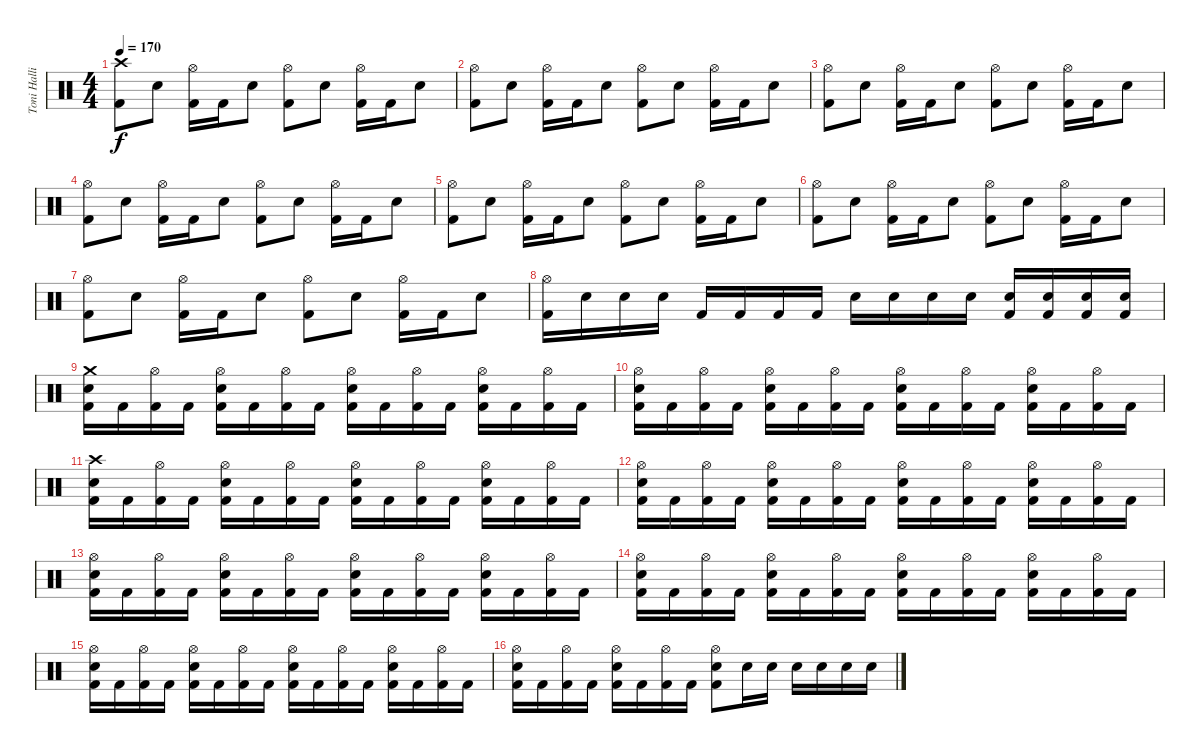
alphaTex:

\track ("Toni Hallio" "Toni Halli") {instrument percussion}
\staff {score}
\articulation defaults
\ts (4 4)
\tempo 170
\clef neutral
\ks c
("Crash high (hit)" "Kick (hit) 2").8{dy f} "Snare (hit) 2".8 ("Hi-Hat (open)" "Kick (hit) 2").16 "Kick (hit) 2".16 "Snare (hit) 2".8 ("Hi-Hat (open)" "Kick (hit) 2").8 "Snare (hit) 2".8 ("Hi-Hat (open)" "Kick (hit) 2").16 "Kick (hit) 2".16 "Snare (hit) 2".8 |
("Hi-Hat (open)" "Kick (hit) 2").8 "Snare (hit) 2".8 ("Hi-Hat (open)" "Kick (hit) 2").16 "Kick (hit) 2".16 "Snare (hit) 2".8 ("Hi-Hat (open)" "Kick (hit) 2").8 "Snare (hit) 2".8 ("Hi-Hat (open)" "Kick (hit) 2").16 "Kick (hit) 2".16 "Snare (hit) 2".8 |
("Hi-Hat (open)" "Kick (hit) 2").8 "Snare (hit) 2".8 ("Hi-Hat (open)" "Kick (hit) 2").16 "Kick (hit) 2".16 "Snare (hit) 2".8 ("Hi-Hat (open)" "Kick (hit) 2").8 "Snare (hit) 2".8 ("Hi-Hat (open)" "Kick (hit) 2").16 "Kick (hit) 2".16 "Snare (hit) 2".8 |
("Hi-Hat (open)" "Kick (hit) 2").8 "Snare (hit) 2".8 ("Hi-Hat (open)" "Kick (hit) 2").16 "Kick (hit) 2".16 "Snare (hit) 2".8 ("Hi-Hat (open)" "Kick (hit) 2").8 "Snare (hit) 2".8 ("Hi-Hat (open)" "Kick (hit) 2").16 "Kick (hit) 2".16 "Snare (hit) 2".8 |
("Hi-Hat (open)" "Kick (hit) 2").8 "Snare (hit) 2".8 ("Hi-Hat (open)" "Kick (hit) 2").16 "Kick (hit) 2".16 "Snare (hit) 2".8 ("Hi-Hat (open)" "Kick (hit) 2").8 "Snare (hit) 2".8 ("Hi-Hat (open)" "Kick (hit) 2").16 "Kick (hit) 2".16 "Snare (hit) 2".8 |
("Hi-Hat (open)" "Kick (hit) 2").8 "Snare (hit) 2".8 ("Hi-Hat (open)" "Kick (hit) 2").16 "Kick (hit) 2".16 "Snare (hit) 2".8 ("Hi-Hat (open)" "Kick (hit) 2").8 "Snare (hit) 2".8 ("Hi-Hat (open)" "Kick (hit) 2").16 "Kick (hit) 2".16 "Snare (hit) 2".8 |
("Hi-Hat (open)" "Kick (hit) 2").8 "Snare (hit) 2".8 ("Hi-Hat (open)" "Kick (hit) 2").16 "Kick (hit) 2".16 "Snare (hit) 2".8 ("Hi-Hat (open)" "Kick (hit) 2").8 "Snare (hit) 2".8 ("Hi-Hat (open)" "Kick (hit) 2").16 "Kick (hit) 2".16 "Snare (hit) 2".8 |
("Hi-Hat (open)" "Kick (hit) 2").16 "Snare (hit) 2".16 "Snare (hit) 2".16 "Snare (hit) 2".16 "Kick (hit) 2".16 "Kick (hit) 2".16 "Kick (hit) 2".16 "Kick (hit) 2".16 "Snare (hit) 2".16 "Snare (hit) 2".16 "Snare (hit) 2".16 "Snare (hit) 2".16 ("Snare (hit) 2" "Kick (hit) 2").16 ("Snare (hit) 2" "Kick (hit) 2").16 ("Snare (hit) 2" "Kick (hit) 2").16 ("Snare (hit) 2" "Kick (hit) 2").16 |
("Crash medium (hit)" "Snare (hit) 2" "Kick (hit) 2").16 "Kick (hit) 2".16 ("Hi-Hat (open)" "Kick (hit) 2").16 "Kick (hit) 2".16 ("Hi-Hat (open)" "Snare (hit) 2" "Kick (hit) 2").16 "Kick (hit) 2".16 ("Hi-Hat (open)" "Kick (hit) 2").16 "Kick (hit) 2".16 ("Hi-Hat (open)" "Snare (hit) 2" "Kick (hit) 2").16 "Kick (hit) 2".16 ("Hi-Hat (open)" "Kick (hit) 2").16 "Kick (hit) 2".16 ("Hi-Hat (open)" "Snare (hit) 2" "Kick (hit) 2").16 "Kick (hit) 2".16 ("Hi-Hat (open)" "Kick (hit) 2").16 "Kick (hit) 2".16 |
("Hi-Hat (open)" "Snare (hit) 2" "Kick (hit) 2").16 "Kick (hit) 2".16 ("Hi-Hat (open)" "Kick (hit) 2").16 "Kick (hit) 2".16 ("Hi-Hat (open)" "Snare (hit) 2" "Kick (hit) 2").16 "Kick (hit) 2".16 ("Hi-Hat (open)" "Kick (hit) 2").16 "Kick (hit) 2".16 ("Hi-Hat (open)" "Snare (hit) 2" "Kick (hit) 2").16 "Kick (hit) 2".16 ("Hi-Hat (open)" "Kick (hit) 2").16 "Kick (hit) 2".16 ("Hi-Hat (open)" "Snare (hit) 2" "Kick (hit) 2").16 "Kick (hit) 2".16 ("Hi-Hat (open)" "Kick (hit) 2").16 "Kick (hit) 2".16 |
("Crash high (hit)" "Snare (hit) 2" "Kick (hit) 2").16 "Kick (hit) 2".16 ("Hi-Hat (open)" "Kick (hit) 2").16 "Kick (hit) 2".16 ("Hi-Hat (open)" "Snare (hit) 2" "Kick (hit) 2").16 "Kick (hit) 2".16 ("Hi-Hat (open)" "Kick (hit) 2").16 "Kick (hit) 2".16 ("Hi-Hat (open)" "Snare (hit) 2" "Kick (hit) 2").16 "Kick (hit) 2".16 ("Hi-Hat (open)" "Kick (hit) 2").16 "Kick (hit) 2".16 ("Hi-Hat (open)" "Snare (hit) 2" "Kick (hit) 2").16 "Kick (hit) 2".16 ("Hi-Hat (open)" "Kick (hit) 2").16 "Kick (hit) 2".16 |
("Hi-Hat (open)" "Snare (hit) 2" "Kick (hit) 2").16 "Kick (hit) 2".16 ("Hi-Hat (open)" "Kick (hit) 2").16 "Kick (hit) 2".16 ("Hi-Hat (open)" "Snare (hit) 2" "Kick (hit) 2").16 "Kick (hit) 2".16 ("Hi-Hat (open)" "Kick (hit) 2").16 "Kick (hit) 2".16 ("Hi-Hat (open)" "Snare (hit) 2" "Kick (hit) 2").16 "Kick (hit) 2".16 ("Hi-Hat (open)" "Kick (hit) 2").16 "Kick (hit) 2".16 ("Hi-Hat (open)" "Snare (hit) 2" "Kick (hit) 2").16 "Kick (hit) 2".16 ("Hi-Hat (open)" "Kick (hit) 2").16 "Kick (hit) 2".16 |
("Hi-Hat (open)" "Snare (hit) 2" "Kick (hit) 2").16 "Kick (hit) 2".16 ("Hi-Hat (open)" "Kick (hit) 2").16 "Kick (hit) 2".16 ("Hi-Hat (open)" "Snare (hit) 2" "Kick (hit) 2").16 "Kick (hit) 2".16 ("Hi-Hat (open)" "Kick (hit) 2").16 "Kick (hit) 2".16 ("Hi-Hat (open)" "Snare (hit) 2" "Kick (hit) 2").16 "Kick (hit) 2".16 ("Hi-Hat (open)" "Kick (hit) 2").16 "Kick (hit) 2".16 ("Hi-Hat (open)" "Snare (hit) 2" "Kick (hit) 2").16 "Kick (hit) 2".16 ("Hi-Hat (open)" "Kick (hit) 2").16 "Kick (hit) 2".16 |
("Hi-Hat (open)" "Snare (hit) 2" "Kick (hit) 2").16 "Kick (hit) 2".16 ("Hi-Hat (open)" "Kick (hit) 2").16 "Kick (hit) 2".16 ("Hi-Hat (open)" "Snare (hit) 2" "Kick (hit) 2").16 "Kick (hit) 2".16 ("Hi-Hat (open)" "Kick (hit) 2").16 "Kick (hit) 2".16 ("Hi-Hat (open)" "Snare (hit) 2" "Kick (hit) 2").16 "Kick (hit) 2".16 ("Hi-Hat (open)" "Kick (hit) 2").16 "Kick (hit) 2".16 ("Hi-Hat (open)" "Snare (hit) 2" "Kick (hit) 2").16 "Kick (hit) 2".16 ("Hi-Hat (open)" "Kick (hit) 2").16 "Kick (hit) 2".16 |
("Hi-Hat (open)" "Snare (hit) 2" "Kick (hit) 2").16 "Kick (hit) 2".16 ("Hi-Hat (open)" "Kick (hit) 2").16 "Kick (hit) 2".16 ("Hi-Hat (open)" "Snare (hit) 2" "Kick (hit) 2").16 "Kick (hit) 2".16 ("Hi-Hat (open)" "Kick (hit) 2").16 "Kick (hit) 2".16 ("Hi-Hat (open)" "Snare (hit) 2" "Kick (hit) 2").16 "Kick (hit) 2".16 ("Hi-Hat (open)" "Kick (hit) 2").16 "Kick (hit) 2".16 ("Hi-Hat (open)" "Snare (hit) 2" "Kick (hit) 2").16 "Kick (hit) 2".16 ("Hi-Hat (open)" "Kick (hit) 2").16 "Kick (hit) 2".16 |
("Hi-Hat (open)" "Snare (hit) 2" "Kick (hit) 2").16 "Kick (hit) 2".16 ("Hi-Hat (open)" "Kick (hit) 2").16 "Kick (hit) 2".16 ("Hi-Hat (open)" "Snare (hit) 2" "Kick (hit) 2").16 "Kick (hit) 2".16 ("Hi-Hat (open)" "Kick (hit) 2").16 "Kick (hit) 2".16 ("Hi-Hat (open)" "Snare (hit) 2" "Kick (hit) 2").8 "Snare (hit) 2".16 "Snare (hit) 2".16 "Snare (hit) 2".16 "Snare (hit) 2".16 "Snare (hit) 2".16 "Snare (hit) 2".16
